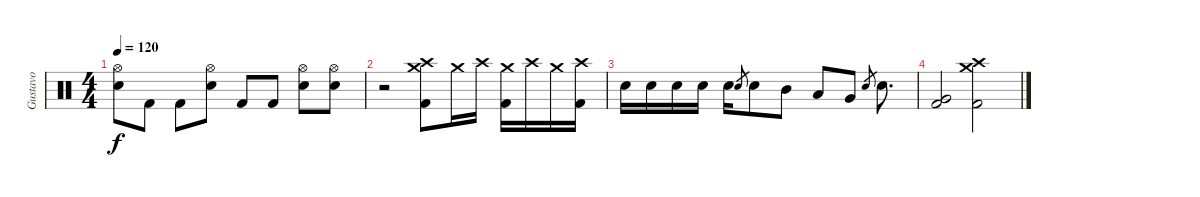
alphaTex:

\track ("Gustavo" "Gustavo") {instrument percussion}
\staff {score}
\articulation defaults
\ts (4 4)
\tempo 120
\clef neutral
\ks c
("Hi-Hat (open)" "Snare (hit) 2").8{dy f} "Kick (hit) 2".8 "Kick (hit) 2".8 ("Hi-Hat (open)" "Snare (hit) 2").8 "Kick (hit) 2".8 "Kick (hit) 2".8 ("Hi-Hat (open)" "Snare (hit) 2").8 ("Hi-Hat (open)" "Snare (hit) 2").8 |
r.2 ("Crash medium (hit)" "Crash high (hit)" "Kick (hit) 2").8 "Crash medium (hit)".16 "Crash high (hit)".16 ("Crash medium (hit)" "Kick (hit) 2").16 "Crash high (hit)".16 "Crash medium (hit)".16 ("Crash high (hit)" "Kick (hit) 2").16 |
"Snare (hit) 2".16 "Snare (hit) 2".16 "Snare (hit) 2".16 "Snare (hit) 2".16 "Snare (hit) 2".16 "Snare (hit) 2".8{gr} "Snare (hit) 2".8 "Mid Tom (hit)".8 "Low Tom (hit)".8 "Very Low Tom (hit)".8 "Snare (hit) 2".8{gr} "Snare (hit) 2".8{d} |
("Kick (hit) 2" "Very Low Tom (hit)").2 ("Crash medium (hit)" "Crash high (hit)" "Kick (hit) 2").2
